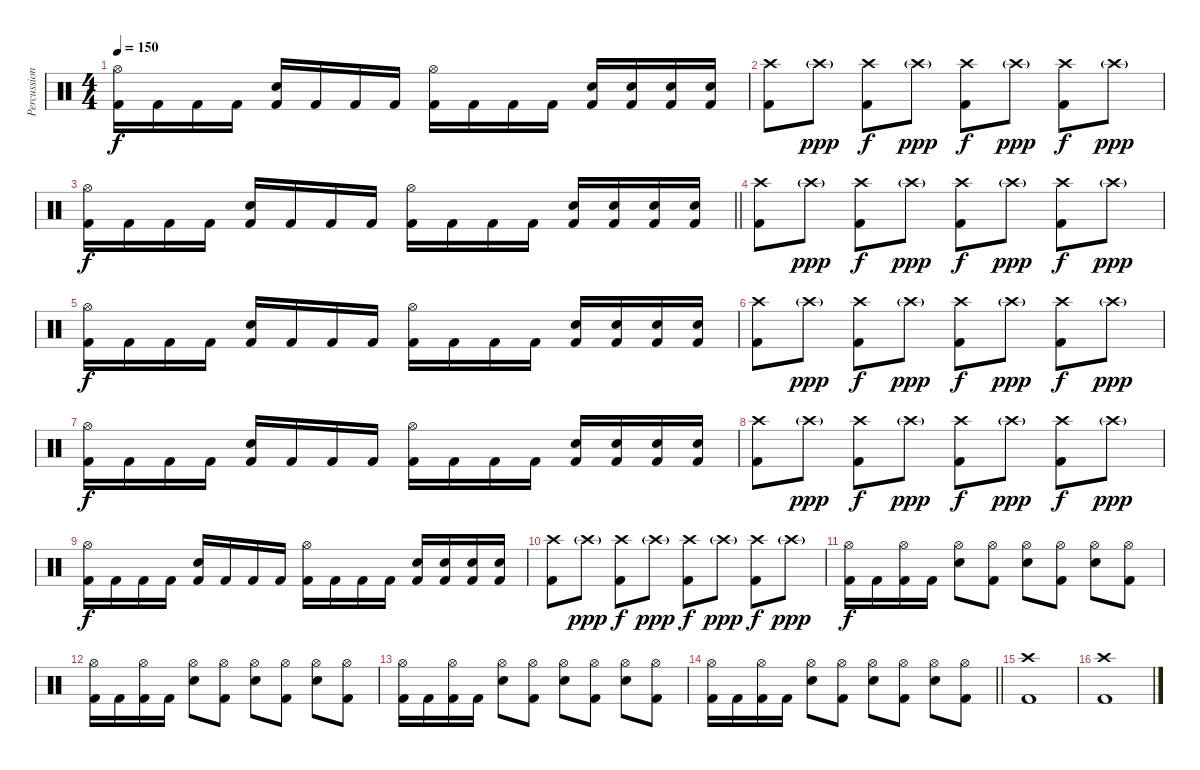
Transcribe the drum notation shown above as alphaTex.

\track ("Percussion" "Percussion") {instrument percussion}
\staff {score}
\articulation defaults
\ts (4 4)
\tempo 150
\clef neutral
\ks c
("Hi-Hat (open)" "Kick (hit) 2").16{dy f} "Kick (hit) 2".16 "Kick (hit) 2".16 "Kick (hit) 2".16 ("Electric Snare (hit)" "Kick (hit) 2").16 "Kick (hit) 2".16 "Kick (hit) 2".16 "Kick (hit) 2".16 ("Hi-Hat (open)" "Kick (hit) 2").16 "Kick (hit) 2".16 "Kick (hit) 2".16 "Kick (hit) 2".16 ("Electric Snare (hit)" "Kick (hit) 2").16 ("Electric Snare (hit)" "Kick (hit) 2").16 ("Electric Snare (hit)" "Kick (hit) 2").16 ("Electric Snare (hit)" "Kick (hit) 2").16 |
("Crash high (hit)" "Kick (hit) 2").8 "Crash high (hit)"{g}.8{dy ppp} ("Crash high (hit)" "Kick (hit) 2").8{dy f} "Crash high (hit)"{g}.8{dy ppp} ("Crash high (hit)" "Kick (hit) 2").8{dy f} "Crash high (hit)"{g}.8{dy ppp} ("Crash high (hit)" "Kick (hit) 2").8{dy f} "Crash high (hit)"{g}.8{dy ppp} |
\barLineRight lightlight
("Hi-Hat (open)" "Kick (hit) 2").16{dy f} "Kick (hit) 2".16 "Kick (hit) 2".16 "Kick (hit) 2".16 ("Electric Snare (hit)" "Kick (hit) 2").16 "Kick (hit) 2".16 "Kick (hit) 2".16 "Kick (hit) 2".16 ("Hi-Hat (open)" "Kick (hit) 2").16 "Kick (hit) 2".16 "Kick (hit) 2".16 "Kick (hit) 2".16 ("Electric Snare (hit)" "Kick (hit) 2").16 ("Electric Snare (hit)" "Kick (hit) 2").16 ("Electric Snare (hit)" "Kick (hit) 2").16 ("Electric Snare (hit)" "Kick (hit) 2").16 |
("Crash high (hit)" "Kick (hit) 2").8 "Crash high (hit)"{g}.8{dy ppp} ("Crash high (hit)" "Kick (hit) 2").8{dy f} "Crash high (hit)"{g}.8{dy ppp} ("Crash high (hit)" "Kick (hit) 2").8{dy f} "Crash high (hit)"{g}.8{dy ppp} ("Crash high (hit)" "Kick (hit) 2").8{dy f} "Crash high (hit)"{g}.8{dy ppp} |
("Hi-Hat (open)" "Kick (hit) 2").16{dy f} "Kick (hit) 2".16 "Kick (hit) 2".16 "Kick (hit) 2".16 ("Electric Snare (hit)" "Kick (hit) 2").16 "Kick (hit) 2".16 "Kick (hit) 2".16 "Kick (hit) 2".16 ("Hi-Hat (open)" "Kick (hit) 2").16 "Kick (hit) 2".16 "Kick (hit) 2".16 "Kick (hit) 2".16 ("Electric Snare (hit)" "Kick (hit) 2").16 ("Electric Snare (hit)" "Kick (hit) 2").16 ("Electric Snare (hit)" "Kick (hit) 2").16 ("Electric Snare (hit)" "Kick (hit) 2").16 |
("Crash high (hit)" "Kick (hit) 2").8 "Crash high (hit)"{g}.8{dy ppp} ("Crash high (hit)" "Kick (hit) 2").8{dy f} "Crash high (hit)"{g}.8{dy ppp} ("Crash high (hit)" "Kick (hit) 2").8{dy f} "Crash high (hit)"{g}.8{dy ppp} ("Crash high (hit)" "Kick (hit) 2").8{dy f} "Crash high (hit)"{g}.8{dy ppp} |
("Hi-Hat (open)" "Kick (hit) 2").16{dy f} "Kick (hit) 2".16 "Kick (hit) 2".16 "Kick (hit) 2".16 ("Electric Snare (hit)" "Kick (hit) 2").16 "Kick (hit) 2".16 "Kick (hit) 2".16 "Kick (hit) 2".16 ("Hi-Hat (open)" "Kick (hit) 2").16 "Kick (hit) 2".16 "Kick (hit) 2".16 "Kick (hit) 2".16 ("Electric Snare (hit)" "Kick (hit) 2").16 ("Electric Snare (hit)" "Kick (hit) 2").16 ("Electric Snare (hit)" "Kick (hit) 2").16 ("Electric Snare (hit)" "Kick (hit) 2").16 |
("Crash high (hit)" "Kick (hit) 2").8 "Crash high (hit)"{g}.8{dy ppp} ("Crash high (hit)" "Kick (hit) 2").8{dy f} "Crash high (hit)"{g}.8{dy ppp} ("Crash high (hit)" "Kick (hit) 2").8{dy f} "Crash high (hit)"{g}.8{dy ppp} ("Crash high (hit)" "Kick (hit) 2").8{dy f} "Crash high (hit)"{g}.8{dy ppp} |
("Hi-Hat (open)" "Kick (hit) 2").16{dy f} "Kick (hit) 2".16 "Kick (hit) 2".16 "Kick (hit) 2".16 ("Electric Snare (hit)" "Kick (hit) 2").16 "Kick (hit) 2".16 "Kick (hit) 2".16 "Kick (hit) 2".16 ("Hi-Hat (open)" "Kick (hit) 2").16 "Kick (hit) 2".16 "Kick (hit) 2".16 "Kick (hit) 2".16 ("Electric Snare (hit)" "Kick (hit) 2").16 ("Electric Snare (hit)" "Kick (hit) 2").16 ("Electric Snare (hit)" "Kick (hit) 2").16 ("Electric Snare (hit)" "Kick (hit) 2").16 |
("Crash high (hit)" "Kick (hit) 2").8 "Crash high (hit)"{g}.8{dy ppp} ("Crash high (hit)" "Kick (hit) 2").8{dy f} "Crash high (hit)"{g}.8{dy ppp} ("Crash high (hit)" "Kick (hit) 2").8{dy f} "Crash high (hit)"{g}.8{dy ppp} ("Crash high (hit)" "Kick (hit) 2").8{dy f} "Crash high (hit)"{g}.8{dy ppp} |
("Hi-Hat (open)" "Kick (hit) 2").16{dy f} "Kick (hit) 2".16 ("Hi-Hat (open)" "Kick (hit) 2").16 "Kick (hit) 2".16 ("Hi-Hat (open)" "Electric Snare (hit)").8 ("Hi-Hat (open)" "Kick (hit) 2").8 ("Hi-Hat (open)" "Electric Snare (hit)").8 ("Hi-Hat (open)" "Kick (hit) 2").8 ("Hi-Hat (open)" "Electric Snare (hit)").8 ("Hi-Hat (open)" "Kick (hit) 2").8 |
("Hi-Hat (open)" "Kick (hit) 2").16 "Kick (hit) 2".16 ("Hi-Hat (open)" "Kick (hit) 2").16 "Kick (hit) 2".16 ("Hi-Hat (open)" "Electric Snare (hit)").8 ("Hi-Hat (open)" "Kick (hit) 2").8 ("Hi-Hat (open)" "Electric Snare (hit)").8 ("Hi-Hat (open)" "Kick (hit) 2").8 ("Hi-Hat (open)" "Electric Snare (hit)").8 ("Hi-Hat (open)" "Kick (hit) 2").8 |
("Hi-Hat (open)" "Kick (hit) 2").16 "Kick (hit) 2".16 ("Hi-Hat (open)" "Kick (hit) 2").16 "Kick (hit) 2".16 ("Hi-Hat (open)" "Electric Snare (hit)").8 ("Hi-Hat (open)" "Kick (hit) 2").8 ("Hi-Hat (open)" "Electric Snare (hit)").8 ("Hi-Hat (open)" "Kick (hit) 2").8 ("Hi-Hat (open)" "Electric Snare (hit)").8 ("Hi-Hat (open)" "Kick (hit) 2").8 |
\barLineRight lightlight
("Hi-Hat (open)" "Kick (hit) 2").16 "Kick (hit) 2".16 ("Hi-Hat (open)" "Kick (hit) 2").16 "Kick (hit) 2".16 ("Hi-Hat (open)" "Electric Snare (hit)").8 ("Hi-Hat (open)" "Kick (hit) 2").8 ("Hi-Hat (open)" "Electric Snare (hit)").8 ("Hi-Hat (open)" "Kick (hit) 2").8 ("Hi-Hat (open)" "Electric Snare (hit)").8 ("Hi-Hat (open)" "Kick (hit) 2").8 |
("Crash high (hit)" "Kick (hit) 2").1 |
("Crash high (hit)" "Kick (hit) 2").1
